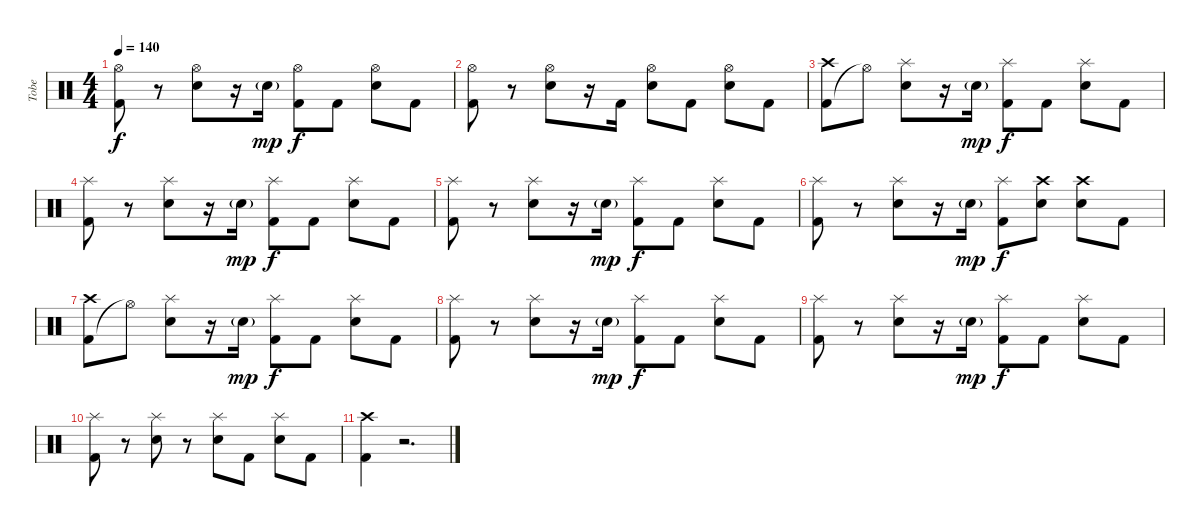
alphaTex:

\track ("Tobe" "Tobe") {instrument percussion}
\staff {score}
\articulation defaults
\ts (4 4)
\tempo 140
\clef neutral
\ks c
("Kick (hit) 2" "Hi-Hat (open)").8{dy f} r.8 ("Electric Snare (hit)" "Hi-Hat (open)").8 r.16 "Electric Snare (hit)"{g}.16{dy mp} ("Kick (hit) 2" "Hi-Hat (open)").8{dy f} "Kick (hit) 2".8 ("Electric Snare (hit)" "Hi-Hat (open)").8 "Kick (hit) 2".8 |
("Kick (hit) 2" "Hi-Hat (open)").8 r.8 ("Electric Snare (hit)" "Hi-Hat (open)").8 r.16 "Kick (hit) 2".16 ("Electric Snare (hit)" "Hi-Hat (open)").8 "Kick (hit) 2".8 ("Electric Snare (hit)" "Hi-Hat (open)").8 "Kick (hit) 2".8 |
("Kick (hit) 2" "Crash high (hit)").8 "Hi-Hat (open)"{t}.8 ("Electric Snare (hit)" "Splash (hit)").8 r.16 "Electric Snare (hit)"{g}.16{dy mp} ("Kick (hit) 2" "Splash (hit)").8{dy f} "Kick (hit) 2".8 ("Electric Snare (hit)" "Splash (hit)").8 "Kick (hit) 2".8 |
("Kick (hit) 2" "Splash (hit)").8 r.8 ("Electric Snare (hit)" "Splash (hit)").8 r.16 "Electric Snare (hit)"{g}.16{dy mp} ("Kick (hit) 2" "Splash (hit)").8{dy f} "Kick (hit) 2".8 ("Electric Snare (hit)" "Splash (hit)").8 "Kick (hit) 2".8 |
("Kick (hit) 2" "Splash (hit)").8 r.8 ("Electric Snare (hit)" "Splash (hit)").8 r.16 "Electric Snare (hit)"{g}.16{dy mp} ("Kick (hit) 2" "Splash (hit)").8{dy f} "Kick (hit) 2".8 ("Electric Snare (hit)" "Splash (hit)").8 "Kick (hit) 2".8 |
("Kick (hit) 2" "Splash (hit)").8 r.8 ("Electric Snare (hit)" "Splash (hit)").8 r.16 "Electric Snare (hit)"{g}.16{dy mp} ("Kick (hit) 2" "Splash (hit)").8{dy f} ("Electric Snare (hit)" "Crash high (hit)").8 ("Electric Snare (hit)" "Crash high (hit)").8 "Kick (hit) 2".8 |
("Kick (hit) 2" "Crash high (hit)").8 "Hi-Hat (open)"{t}.8 ("Electric Snare (hit)" "Splash (hit)").8 r.16 "Electric Snare (hit)"{g}.16{dy mp} ("Kick (hit) 2" "Splash (hit)").8{dy f} "Kick (hit) 2".8 ("Electric Snare (hit)" "Splash (hit)").8 "Kick (hit) 2".8 |
("Kick (hit) 2" "Splash (hit)").8 r.8 ("Electric Snare (hit)" "Splash (hit)").8 r.16 "Electric Snare (hit)"{g}.16{dy mp} ("Kick (hit) 2" "Splash (hit)").8{dy f} "Kick (hit) 2".8 ("Electric Snare (hit)" "Splash (hit)").8 "Kick (hit) 2".8 |
("Kick (hit) 2" "Splash (hit)").8 r.8 ("Electric Snare (hit)" "Splash (hit)").8 r.16 "Electric Snare (hit)"{g}.16{dy mp} ("Kick (hit) 2" "Splash (hit)").8{dy f} "Kick (hit) 2".8 ("Electric Snare (hit)" "Splash (hit)").8 "Kick (hit) 2".8 |
("Kick (hit) 2" "Splash (hit)").8 r.8 ("Electric Snare (hit)" "Splash (hit)").8 r.8 ("Electric Snare (hit)" "Splash (hit)").8 "Kick (hit) 2".8 ("Electric Snare (hit)" "Splash (hit)").8 "Kick (hit) 2".8 |
("Kick (hit) 2" "Crash high (hit)").4 r.2{d}
